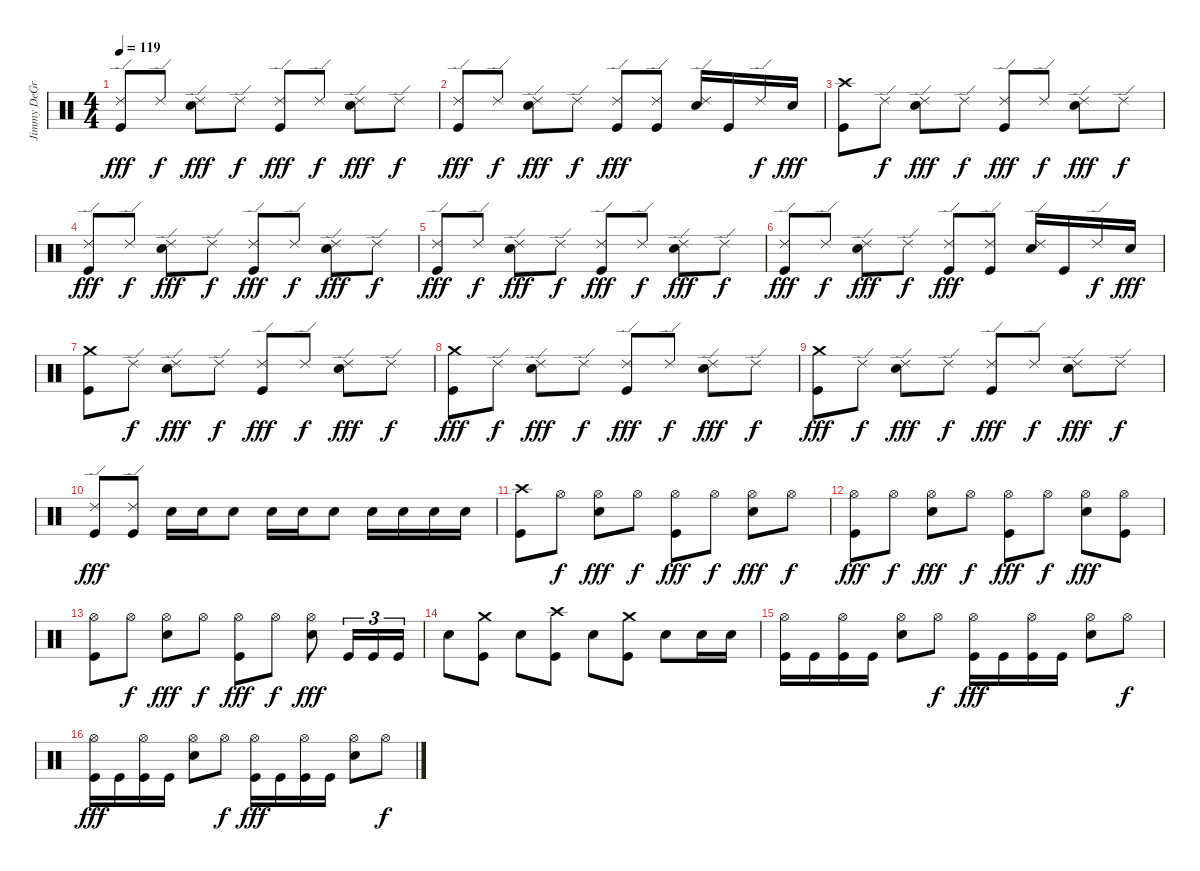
\track ("Jimmy DeGrasso" "Jimmy DeGr") {instrument percussion}
\staff {score}
\articulation defaults
\ts (4 4)
\tempo 119
\clef neutral
\ks c
("Kick (hit)" "Ride (edge) 2").8{dy fff} "Ride (edge) 2".8{dy f} ("Electric Snare (hit)" "Ride (edge) 2").8{dy fff} "Ride (edge) 2".8{dy f} ("Kick (hit)" "Ride (edge) 2").8{dy fff} "Ride (edge) 2".8{dy f} ("Electric Snare (hit)" "Ride (edge) 2").8{dy fff} "Ride (edge) 2".8{dy f} |
("Kick (hit)" "Ride (edge) 2").8{dy fff} "Ride (edge) 2".8{dy f} ("Electric Snare (hit)" "Ride (edge) 2").8{dy fff} "Ride (edge) 2".8{dy f} ("Kick (hit)" "Ride (edge) 2").8{dy fff} ("Kick (hit)" "Ride (edge) 2").8 ("Electric Snare (hit)" "Ride (edge) 2").16 "Kick (hit)".16 "Ride (edge) 2".16{dy f} "Electric Snare (hit)".16{dy fff} |
("Kick (hit)" "Crash high (hit)").8 "Ride (edge) 2".8{dy f} ("Electric Snare (hit)" "Ride (edge) 2").8{dy fff} "Ride (edge) 2".8{dy f} ("Kick (hit)" "Ride (edge) 2").8{dy fff} "Ride (edge) 2".8{dy f} ("Electric Snare (hit)" "Ride (edge) 2").8{dy fff} "Ride (edge) 2".8{dy f} |
("Kick (hit)" "Ride (edge) 2").8{dy fff} "Ride (edge) 2".8{dy f} ("Electric Snare (hit)" "Ride (edge) 2").8{dy fff} "Ride (edge) 2".8{dy f} ("Kick (hit)" "Ride (edge) 2").8{dy fff} "Ride (edge) 2".8{dy f} ("Electric Snare (hit)" "Ride (edge) 2").8{dy fff} "Ride (edge) 2".8{dy f} |
("Kick (hit)" "Ride (edge) 2").8{dy fff} "Ride (edge) 2".8{dy f} ("Electric Snare (hit)" "Ride (edge) 2").8{dy fff} "Ride (edge) 2".8{dy f} ("Kick (hit)" "Ride (edge) 2").8{dy fff} "Ride (edge) 2".8{dy f} ("Electric Snare (hit)" "Ride (edge) 2").8{dy fff} "Ride (edge) 2".8{dy f} |
("Kick (hit)" "Ride (edge) 2").8{dy fff} "Ride (edge) 2".8{dy f} ("Electric Snare (hit)" "Ride (edge) 2").8{dy fff} "Ride (edge) 2".8{dy f} ("Kick (hit)" "Ride (edge) 2").8{dy fff} ("Kick (hit)" "Ride (edge) 2").8 ("Electric Snare (hit)" "Ride (edge) 2").16 "Kick (hit)".16 "Ride (edge) 2".16{dy f} "Electric Snare (hit)".16{dy fff} |
("Kick (hit)" "Crash medium (hit)").8 "Ride (edge) 2".8{dy f} ("Electric Snare (hit)" "Ride (edge) 2").8{dy fff} "Ride (edge) 2".8{dy f} ("Kick (hit)" "Ride (edge) 2").8{dy fff} "Ride (edge) 2".8{dy f} ("Electric Snare (hit)" "Ride (edge) 2").8{dy fff} "Ride (edge) 2".8{dy f} |
("Kick (hit)" "Crash medium (hit)").8{dy fff} "Ride (edge) 2".8{dy f} ("Electric Snare (hit)" "Ride (edge) 2").8{dy fff} "Ride (edge) 2".8{dy f} ("Kick (hit)" "Ride (edge) 2").8{dy fff} "Ride (edge) 2".8{dy f} ("Electric Snare (hit)" "Ride (edge) 2").8{dy fff} "Ride (edge) 2".8{dy f} |
("Kick (hit)" "Crash medium (hit)").8{dy fff} "Ride (edge) 2".8{dy f} ("Electric Snare (hit)" "Ride (edge) 2").8{dy fff} "Ride (edge) 2".8{dy f} ("Kick (hit)" "Ride (edge) 2").8{dy fff} "Ride (edge) 2".8{dy f} ("Electric Snare (hit)" "Ride (edge) 2").8{dy fff} "Ride (edge) 2".8{dy f} |
("Kick (hit)" "Ride (edge) 2").8{dy fff} ("Kick (hit)" "Ride (edge) 2").8 "Electric Snare (hit)".16 "Electric Snare (hit)".16 "Electric Snare (hit)".8 "Electric Snare (hit)".16 "Electric Snare (hit)".16 "Electric Snare (hit)".8 "Electric Snare (hit)".16 "Electric Snare (hit)".16 "Electric Snare (hit)".16 "Electric Snare (hit)".16 |
("Kick (hit)" "Crash high (hit)").8 "Hi-Hat (open)".8{dy f} ("Electric Snare (hit)" "Hi-Hat (open)").8{dy fff} "Hi-Hat (open)".8{dy f} ("Kick (hit)" "Hi-Hat (open)").8{dy fff} "Hi-Hat (open)".8{dy f} ("Electric Snare (hit)" "Hi-Hat (open)").8{dy fff} "Hi-Hat (open)".8{dy f} |
("Kick (hit)" "Hi-Hat (open)").8{dy fff} "Hi-Hat (open)".8{dy f} ("Electric Snare (hit)" "Hi-Hat (open)").8{dy fff} "Hi-Hat (open)".8{dy f} ("Kick (hit)" "Hi-Hat (open)").8{dy fff} "Hi-Hat (open)".8{dy f} ("Electric Snare (hit)" "Hi-Hat (open)").8{dy fff} ("Kick (hit)" "Hi-Hat (open)").8 |
("Kick (hit)" "Hi-Hat (open)").8 "Hi-Hat (open)".8{dy f} ("Electric Snare (hit)" "Hi-Hat (open)").8{dy fff} "Hi-Hat (open)".8{dy f} ("Kick (hit)" "Hi-Hat (open)").8{dy fff} "Hi-Hat (open)".8{dy f} ("Electric Snare (hit)" "Hi-Hat (open)").8{dy fff} "Kick (hit)".16{tu (3 2)} "Kick (hit)".16{tu (3 2)} "Kick (hit)".16{tu (3 2)} |
"Electric Snare (hit)".8 ("Kick (hit)" "Crash medium (hit)").8 "Electric Snare (hit)".8 ("Kick (hit)" "Crash high (hit)").8 "Electric Snare (hit)".8 ("Kick (hit)" "Crash medium (hit)").8 "Electric Snare (hit)".8 "Electric Snare (hit)".16 "Electric Snare (hit)".16 |
("Kick (hit)" "Hi-Hat (open)").16 "Kick (hit)".16 ("Kick (hit)" "Hi-Hat (open)").16 "Kick (hit)".16 ("Electric Snare (hit)" "Hi-Hat (open)").8 "Hi-Hat (open)".8{dy f} ("Kick (hit)" "Hi-Hat (open)").16{dy fff} "Kick (hit)".16 ("Kick (hit)" "Hi-Hat (open)").16 "Kick (hit)".16 ("Electric Snare (hit)" "Hi-Hat (open)").8 "Hi-Hat (open)".8{dy f} |
("Kick (hit)" "Hi-Hat (open)").16{dy fff} "Kick (hit)".16 ("Kick (hit)" "Hi-Hat (open)").16 "Kick (hit)".16 ("Electric Snare (hit)" "Hi-Hat (open)").8 "Hi-Hat (open)".8{dy f} ("Kick (hit)" "Hi-Hat (open)").16{dy fff} "Kick (hit)".16 ("Kick (hit)" "Hi-Hat (open)").16 "Kick (hit)".16 ("Electric Snare (hit)" "Hi-Hat (open)").8 "Hi-Hat (open)".8{dy f}
